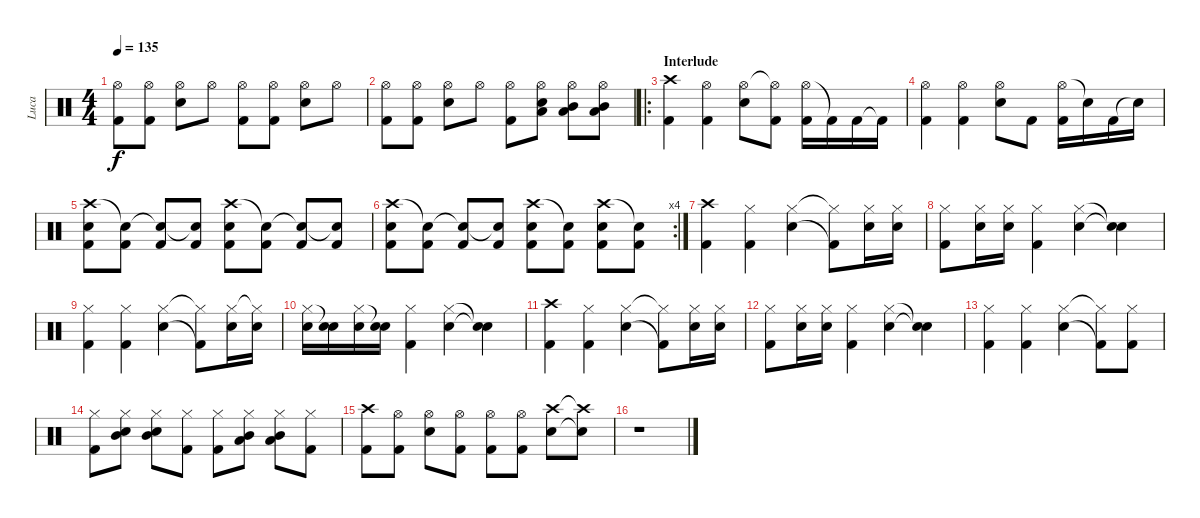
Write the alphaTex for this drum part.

\track ("Luca" "Luca") {instrument percussion}
\staff {score}
\articulation defaults
\ts (4 4)
\tempo 135
\clef neutral
\ks c
("Hi-Hat (open)" "Kick (hit) 2").8{dy f} ("Hi-Hat (open)" "Kick (hit) 2").8 ("Hi-Hat (open)" "Snare (hit) 2").8 "Hi-Hat (open)".8 ("Hi-Hat (open)" "Kick (hit) 2").8 ("Hi-Hat (open)" "Kick (hit) 2").8 ("Hi-Hat (open)" "Snare (hit) 2").8 "Hi-Hat (open)".8 |
("Hi-Hat (open)" "Kick (hit) 2").8 ("Hi-Hat (open)" "Kick (hit) 2").8 ("Hi-Hat (open)" "Snare (hit) 2").8 "Hi-Hat (open)".8 ("Hi-Hat (open)" "Kick (hit) 2").8 ("Hi-Hat (open)" "Low Tom (hit)" "Snare (hit) 2").8 ("Hi-Hat (open)" "Mid Tom (hit)" "Low Tom (hit)").8 ("Hi-Hat (open)" "Low Floor Tom (hit)" "Mid Tom (hit)").8 |
\ro
\section ("" "Interlude")
("Crash high (hit)" "Kick (hit) 2").4 ("Hi-Hat (open)" "Kick (hit) 2").4 ("Hi-Hat (open)" "Snare (hit) 2").8 ("Hi-Hat (open)"{t} "Kick (hit) 2").8 ("Hi-Hat (open)" "Kick (hit) 2").16 "Kick (hit) 2"{t}.16 "Kick (hit) 2".16 "Kick (hit) 2"{t}.16 |
("Hi-Hat (open)" "Kick (hit) 2").4 ("Hi-Hat (open)" "Kick (hit) 2").4 ("Hi-Hat (open)" "Snare (hit) 2").8 "Kick (hit) 2".8 ("Hi-Hat (open)" "Kick (hit) 2").16 "Snare (hit)"{t}.16 "Kick (hit) 2".16 "Snare (hit)"{t}.16 |
("Crash high (hit)" "Snare (hit) 2" "Kick (hit) 2").8 ("Snare (hit)"{t} "Kick (hit) 2").8 ("Snare (hit)"{t} "Kick (hit) 2").8 ("Snare (hit)"{t} "Kick (hit) 2").8 ("Crash high (hit)" "Snare (hit) 2" "Kick (hit) 2").8 ("Snare (hit)"{t} "Kick (hit) 2").8 ("Snare (hit)"{t} "Kick (hit) 2").8 ("Snare (hit)"{t} "Kick (hit) 2").8 |
\rc 4
("Crash high (hit)" "Snare (hit) 2" "Kick (hit) 2").8 ("Snare (hit)"{t} "Kick (hit) 2").8 ("Snare (hit)"{t} "Kick (hit) 2").8 ("Snare (hit)"{t} "Kick (hit) 2").8 ("Crash high (hit)" "Snare (hit) 2" "Kick (hit) 2").8 ("Snare (hit)"{t} "Kick (hit) 2").8 ("Crash high (hit)" "Snare (hit) 2" "Kick (hit) 2").8 ("Snare (hit)"{t} "Kick (hit) 2").8 |
("Crash high (hit)" "Kick (hit) 2").4 ("Hi-Hat (closed)" "Kick (hit) 2").4 ("Hi-Hat (closed)" "Snare (hit) 2").4 ("Hi-Hat (closed)"{t} "Kick (hit) 2"{t}).8 ("Hi-Hat (closed)" "Snare (hit) 2").16 ("Hi-Hat (closed)" "Snare (hit) 2").16 |
("Hi-Hat (closed)" "Kick (hit) 2").8 ("Hi-Hat (closed)" "Snare (hit) 2").16 ("Hi-Hat (closed)" "Snare (hit) 2").16 ("Hi-Hat (closed)" "Kick (hit) 2").4 ("Hi-Hat (closed)" "Snare (hit) 2").4 ("Snare (hit)"{t} "Snare (hit)"{t}).4 |
("Hi-Hat (closed)" "Kick (hit) 2").4 ("Hi-Hat (closed)" "Kick (hit) 2").4 ("Hi-Hat (closed)" "Snare (hit) 2").4 ("Hi-Hat (closed)"{t} "Kick (hit) 2"{t}).8 ("Hi-Hat (closed)" "Snare (hit) 2").16 ("Hi-Hat (closed)"{t} "Snare (hit) 2").16 |
("Hi-Hat (closed)" "Snare (hit) 2").16 ("Snare (hit)"{t} "Snare (hit) 2").16 ("Hi-Hat (closed)" "Snare (hit) 2").16 ("Snare (hit)"{t} "Snare (hit) 2").16 ("Hi-Hat (closed)" "Kick (hit) 2").4 ("Hi-Hat (closed)" "Snare (hit) 2").4 ("Snare (hit)"{t} "Snare (hit)"{t}).4 |
("Crash high (hit)" "Kick (hit) 2").4 ("Hi-Hat (closed)" "Kick (hit) 2").4 ("Hi-Hat (closed)" "Snare (hit) 2").4 ("Hi-Hat (closed)"{t} "Kick (hit) 2"{t}).8 ("Hi-Hat (closed)" "Snare (hit) 2").16 ("Hi-Hat (closed)" "Snare (hit) 2").16 |
("Hi-Hat (closed)" "Kick (hit) 2").8 ("Hi-Hat (closed)" "Snare (hit) 2").16 ("Hi-Hat (closed)" "Snare (hit) 2").16 ("Hi-Hat (closed)" "Kick (hit) 2").4 ("Hi-Hat (closed)" "Snare (hit) 2").4 ("Snare (hit)"{t} "Snare (hit)"{t}).4 |
("Hi-Hat (closed)" "Kick (hit) 2").4 ("Hi-Hat (closed)" "Kick (hit) 2").4 ("Hi-Hat (closed)" "Snare (hit) 2").4 ("Hi-Hat (closed)"{t} "Kick (hit) 2"{t}).8 ("Hi-Hat (closed)" "Kick (hit) 2").8 |
("Hi-Hat (closed)" "Kick (hit) 2").8 ("Hi-Hat (closed)" "Mid Tom (hit)" "Snare (hit) 2").8 ("Hi-Hat (closed)" "Mid Tom (hit)" "Snare (hit) 2").8 ("Hi-Hat (closed)" "Kick (hit) 2").8 ("Hi-Hat (closed)" "Kick (hit) 2").8 ("Hi-Hat (closed)" "Mid Tom (hit)" "Low Tom (hit)").8 ("Hi-Hat (closed)" "Mid Tom (hit)" "Low Tom (hit)").8 ("Hi-Hat (closed)" "Kick (hit) 2").8 |
("Crash high (hit)" "Kick (hit) 2").8 ("Hi-Hat (open)" "Kick (hit) 2").8 ("Hi-Hat (open)" "Snare (hit) 2").8 ("Hi-Hat (open)" "Kick (hit) 2").8 ("Hi-Hat (open)" "Kick (hit) 2").8 ("Hi-Hat (open)" "Kick (hit) 2").8 ("Crash high (hit)" "Snare (hit) 2").8 ("Crash high (hit)"{t} "Snare (hit)"{t}).8 |
r.1
